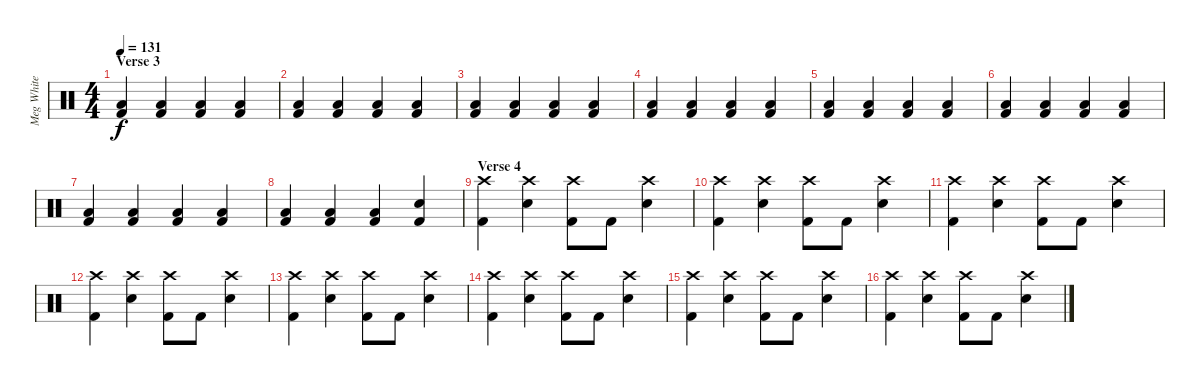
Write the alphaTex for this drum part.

\track ("Meg White - Drums" "Meg White ") {instrument percussion}
\staff {score}
\articulation defaults
\ts (4 4)
\section ("" "Verse 3")
\tempo 131
\clef neutral
\ks c
("Low Floor Tom (hit)" "Kick (hit) 2").4{dy f} ("Low Floor Tom (hit)" "Kick (hit) 2").4 ("Low Floor Tom (hit)" "Kick (hit) 2").4 ("Low Floor Tom (hit)" "Kick (hit) 2").4 |
("Low Floor Tom (hit)" "Kick (hit) 2").4 ("Low Floor Tom (hit)" "Kick (hit) 2").4 ("Low Floor Tom (hit)" "Kick (hit) 2").4 ("Low Floor Tom (hit)" "Kick (hit) 2").4 |
("Low Floor Tom (hit)" "Kick (hit) 2").4 ("Low Floor Tom (hit)" "Kick (hit) 2").4 ("Low Floor Tom (hit)" "Kick (hit) 2").4 ("Low Floor Tom (hit)" "Kick (hit) 2").4 |
("Low Floor Tom (hit)" "Kick (hit) 2").4 ("Low Floor Tom (hit)" "Kick (hit) 2").4 ("Low Floor Tom (hit)" "Kick (hit) 2").4 ("Low Floor Tom (hit)" "Kick (hit) 2").4 |
("Low Floor Tom (hit)" "Kick (hit) 2").4 ("Low Floor Tom (hit)" "Kick (hit) 2").4 ("Low Floor Tom (hit)" "Kick (hit) 2").4 ("Low Floor Tom (hit)" "Kick (hit) 2").4 |
("Low Floor Tom (hit)" "Kick (hit) 2").4 ("Low Floor Tom (hit)" "Kick (hit) 2").4 ("Low Floor Tom (hit)" "Kick (hit) 2").4 ("Low Floor Tom (hit)" "Kick (hit) 2").4 |
("Low Floor Tom (hit)" "Kick (hit) 2").4 ("Low Floor Tom (hit)" "Kick (hit) 2").4 ("Low Floor Tom (hit)" "Kick (hit) 2").4 ("Low Floor Tom (hit)" "Kick (hit) 2").4 |
("Low Floor Tom (hit)" "Kick (hit) 2").4 ("Low Floor Tom (hit)" "Kick (hit) 2").4 ("Low Floor Tom (hit)" "Kick (hit) 2").4 ("Electric Snare (hit)" "Kick (hit) 2").4 |
\section ("" "Verse 4")
("Crash high (hit)" "Kick (hit) 2").4 ("Crash high (hit)" "Electric Snare (hit)").4 ("Crash high (hit)" "Kick (hit) 2").8 "Kick (hit) 2".8 ("Crash high (hit)" "Electric Snare (hit)").4 |
("Crash high (hit)" "Kick (hit) 2").4 ("Crash high (hit)" "Electric Snare (hit)").4 ("Crash high (hit)" "Kick (hit) 2").8 "Kick (hit) 2".8 ("Crash high (hit)" "Electric Snare (hit)").4 |
("Crash high (hit)" "Kick (hit) 2").4 ("Crash high (hit)" "Electric Snare (hit)").4 ("Crash high (hit)" "Kick (hit) 2").8 "Kick (hit) 2".8 ("Crash high (hit)" "Electric Snare (hit)").4 |
("Crash high (hit)" "Kick (hit) 2").4 ("Crash high (hit)" "Electric Snare (hit)").4 ("Crash high (hit)" "Kick (hit) 2").8 "Kick (hit) 2".8 ("Crash high (hit)" "Electric Snare (hit)").4 |
("Crash high (hit)" "Kick (hit) 2").4 ("Crash high (hit)" "Electric Snare (hit)").4 ("Crash high (hit)" "Kick (hit) 2").8 "Kick (hit) 2".8 ("Crash high (hit)" "Electric Snare (hit)").4 |
("Crash high (hit)" "Kick (hit) 2").4 ("Crash high (hit)" "Electric Snare (hit)").4 ("Crash high (hit)" "Kick (hit) 2").8 "Kick (hit) 2".8 ("Crash high (hit)" "Electric Snare (hit)").4 |
("Crash high (hit)" "Kick (hit) 2").4 ("Crash high (hit)" "Electric Snare (hit)").4 ("Crash high (hit)" "Kick (hit) 2").8 "Kick (hit) 2".8 ("Crash high (hit)" "Electric Snare (hit)").4 |
("Crash high (hit)" "Kick (hit) 2").4 ("Crash high (hit)" "Electric Snare (hit)").4 ("Crash high (hit)" "Kick (hit) 2").8 "Kick (hit) 2".8 ("Crash high (hit)" "Electric Snare (hit)").4
